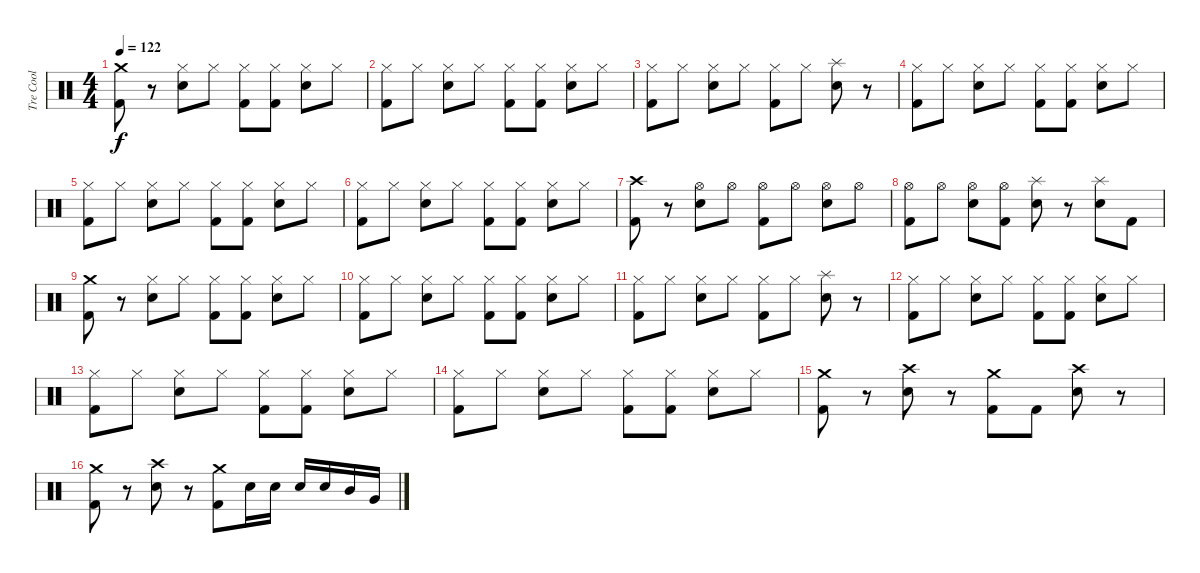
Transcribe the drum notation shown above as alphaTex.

\track ("Tre Cool" "Tre Cool") {instrument percussion}
\staff {score}
\articulation defaults
\ts (4 4)
\tempo 122
\clef neutral
\ks c
("Kick (hit) 2" "Crash medium (hit)").8{dy f} r.8 ("Hi-Hat (closed)" "Electric Snare (hit)").8 "Hi-Hat (closed)".8 ("Hi-Hat (closed)" "Kick (hit) 2").8 ("Kick (hit) 2" "Hi-Hat (closed)").8 ("Hi-Hat (closed)" "Electric Snare (hit)").8 "Hi-Hat (closed)".8 |
("Kick (hit) 2" "Hi-Hat (closed)").8 "Hi-Hat (closed)".8 ("Hi-Hat (closed)" "Electric Snare (hit)").8 "Hi-Hat (closed)".8 ("Kick (hit) 2" "Hi-Hat (closed)").8 ("Hi-Hat (closed)" "Kick (hit) 2").8 ("Hi-Hat (closed)" "Electric Snare (hit)").8 "Hi-Hat (closed)".8 |
("Hi-Hat (closed)" "Kick (hit) 2").8 "Hi-Hat (closed)".8 ("Hi-Hat (closed)" "Electric Snare (hit)").8 "Hi-Hat (closed)".8 ("Hi-Hat (closed)" "Kick (hit) 2").8 "Hi-Hat (closed)".8 ("Splash (hit)" "Electric Snare (hit)").8 r.8 |
("Hi-Hat (closed)" "Kick (hit) 2").8 "Hi-Hat (closed)".8 ("Hi-Hat (closed)" "Electric Snare (hit)").8 "Hi-Hat (closed)".8 ("Hi-Hat (closed)" "Kick (hit) 2").8 ("Hi-Hat (closed)" "Kick (hit) 2").8 ("Hi-Hat (closed)" "Electric Snare (hit)").8 "Hi-Hat (closed)".8 |
("Hi-Hat (closed)" "Kick (hit) 2").8 "Hi-Hat (closed)".8 ("Hi-Hat (closed)" "Electric Snare (hit)").8 "Hi-Hat (closed)".8 ("Hi-Hat (closed)" "Kick (hit) 2").8 ("Kick (hit) 2" "Hi-Hat (closed)").8 ("Hi-Hat (closed)" "Electric Snare (hit)").8 "Hi-Hat (closed)".8 |
("Kick (hit) 2" "Hi-Hat (closed)").8 "Hi-Hat (closed)".8 ("Hi-Hat (closed)" "Electric Snare (hit)").8 "Hi-Hat (closed)".8 ("Kick (hit) 2" "Hi-Hat (closed)").8 ("Hi-Hat (closed)" "Kick (hit) 2").8 ("Hi-Hat (closed)" "Electric Snare (hit)").8 "Hi-Hat (closed)".8 |
("Crash high (hit)" "Kick (hit) 2").8 r.8 ("Electric Snare (hit)" "Hi-Hat (open)").8 "Hi-Hat (open)".8 ("Kick (hit) 2" "Hi-Hat (open)").8 "Hi-Hat (open)".8 ("Hi-Hat (open)" "Electric Snare (hit)").8 "Hi-Hat (open)".8 |
("Kick (hit) 2" "Hi-Hat (open)").8 "Hi-Hat (open)".8 ("Electric Snare (hit)" "Hi-Hat (open)").8 ("Hi-Hat (open)" "Kick (hit) 2").8 ("Splash (hit)" "Electric Snare (hit)").8 r.8 ("Splash (hit)" "Electric Snare (hit)").8 "Kick (hit) 2".8 |
("Crash medium (hit)" "Kick (hit) 2").8 r.8 ("Hi-Hat (closed)" "Electric Snare (hit)").8 "Hi-Hat (closed)".8 ("Kick (hit) 2" "Hi-Hat (closed)").8 ("Hi-Hat (closed)" "Kick (hit) 2").8 ("Electric Snare (hit)" "Hi-Hat (closed)").8 "Hi-Hat (closed)".8 |
("Kick (hit) 2" "Hi-Hat (closed)").8 "Hi-Hat (closed)".8 ("Hi-Hat (closed)" "Electric Snare (hit)").8 "Hi-Hat (closed)".8 ("Kick (hit) 2" "Hi-Hat (closed)").8 ("Kick (hit) 2" "Hi-Hat (closed)").8 ("Hi-Hat (closed)" "Electric Snare (hit)").8 "Hi-Hat (closed)".8 |
("Hi-Hat (closed)" "Kick (hit) 2").8 "Hi-Hat (closed)".8 ("Electric Snare (hit)" "Hi-Hat (closed)").8 "Hi-Hat (closed)".8 ("Hi-Hat (closed)" "Kick (hit) 2").8 "Hi-Hat (closed)".8 ("Splash (hit)" "Electric Snare (hit)").8 r.8 |
("Hi-Hat (closed)" "Kick (hit) 2").8 "Hi-Hat (closed)".8 ("Hi-Hat (closed)" "Electric Snare (hit)").8 "Hi-Hat (closed)".8 ("Kick (hit) 2" "Hi-Hat (closed)").8 ("Kick (hit) 2" "Hi-Hat (closed)").8 ("Electric Snare (hit)" "Hi-Hat (closed)").8 "Hi-Hat (closed)".8 |
("Kick (hit) 2" "Hi-Hat (closed)").8 "Hi-Hat (closed)".8 ("Hi-Hat (closed)" "Electric Snare (hit)").8 "Hi-Hat (closed)".8 ("Kick (hit) 2" "Hi-Hat (closed)").8 ("Kick (hit) 2" "Hi-Hat (closed)").8 ("Electric Snare (hit)" "Hi-Hat (closed)").8 "Hi-Hat (closed)".8 |
("Hi-Hat (closed)" "Kick (hit) 2").8 "Hi-Hat (closed)".8 ("Hi-Hat (closed)" "Electric Snare (hit)").8 "Hi-Hat (closed)".8 ("Hi-Hat (closed)" "Kick (hit) 2").8 ("Hi-Hat (closed)" "Kick (hit) 2").8 ("Hi-Hat (closed)" "Electric Snare (hit)").8 "Hi-Hat (closed)".8 |
("Crash medium (hit)" "Kick (hit) 2").8 r.8 ("Crash high (hit)" "Electric Snare (hit)").8 r.8 ("Crash medium (hit)" "Kick (hit) 2").8 "Kick (hit) 2".8 ("Crash high (hit)" "Electric Snare (hit)").8 r.8 |
("Crash medium (hit)" "Kick (hit) 2").8 r.8 ("Crash high (hit)" "Electric Snare (hit)").8 r.8 ("Crash medium (hit)" "Kick (hit) 2").8 "Electric Snare (hit)".16 "Electric Snare (hit)".16 "Electric Snare (hit)".16 "Electric Snare (hit)".16 "Mid Tom (hit)".16 "Very Low Tom (hit)".16
